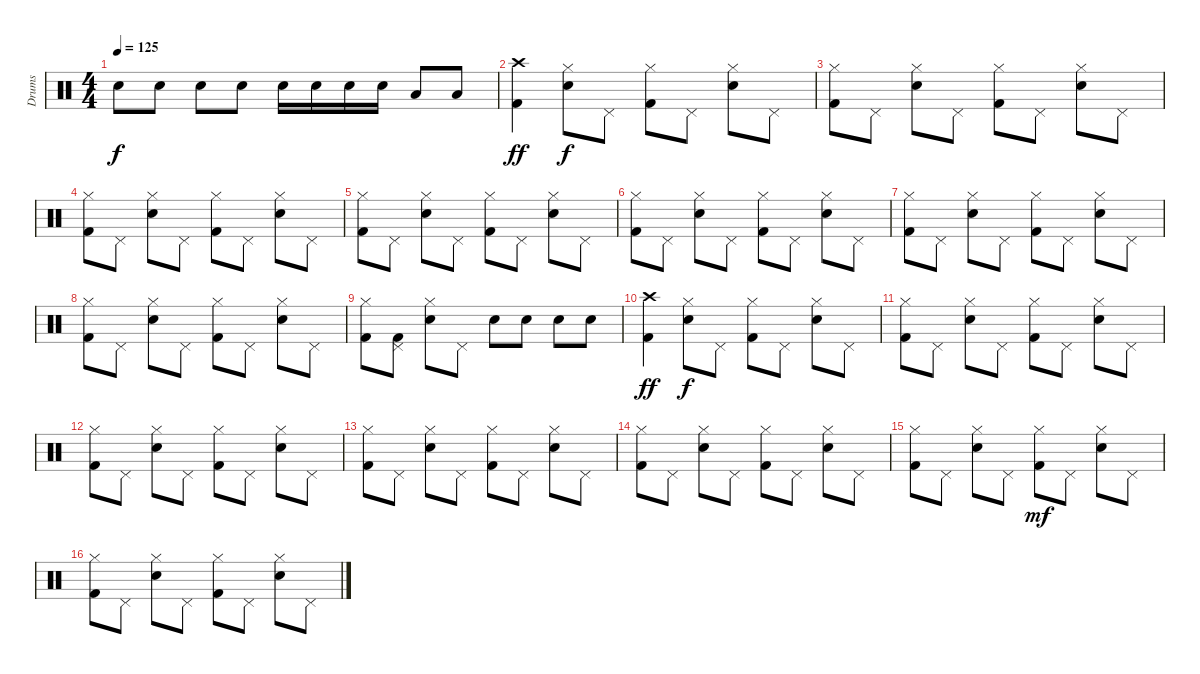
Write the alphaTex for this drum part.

\track ("Drums" "Drums") {instrument percussion}
\staff {score}
\articulation defaults
\ts (4 4)
\tempo 125
\clef neutral
\ks c "Snare (hit) 2".8{dy f} "Snare (hit) 2".8 "Snare (hit) 2".8 "Snare (hit) 2".8 "Snare (hit) 2".16 "Snare (hit) 2".16 "Snare (hit) 2".16 "Snare (hit) 2".16 "Low Tom (hit)".8 "Low Tom (hit)".8
|
("Crash high (hit)" "Kick (hit) 2").4{dy ff} ("Hi-Hat (closed)" "Electric Snare (hit)").8{dy f} "Pedal Hi-Hat (hit)".8 ("Hi-Hat (closed)" "Kick (hit) 2").8 "Pedal Hi-Hat (hit)".8 ("Hi-Hat (closed)" "Electric Snare (hit)").8 "Pedal Hi-Hat (hit)".8 |
("Hi-Hat (closed)" "Kick (hit) 2").8 "Pedal Hi-Hat (hit)".8 ("Hi-Hat (closed)" "Electric Snare (hit)").8 "Pedal Hi-Hat (hit)".8 ("Hi-Hat (closed)" "Kick (hit) 2").8 "Pedal Hi-Hat (hit)".8 ("Hi-Hat (closed)" "Electric Snare (hit)").8 "Pedal Hi-Hat (hit)".8 |
("Hi-Hat (closed)" "Kick (hit) 2").8 "Pedal Hi-Hat (hit)".8 ("Hi-Hat (closed)" "Electric Snare (hit)").8 "Pedal Hi-Hat (hit)".8 ("Hi-Hat (closed)" "Kick (hit) 2").8 "Pedal Hi-Hat (hit)".8 ("Hi-Hat (closed)" "Electric Snare (hit)").8 "Pedal Hi-Hat (hit)".8 |
("Hi-Hat (closed)" "Kick (hit) 2").8 "Pedal Hi-Hat (hit)".8 ("Hi-Hat (closed)" "Electric Snare (hit)").8 "Pedal Hi-Hat (hit)".8 ("Hi-Hat (closed)" "Kick (hit) 2").8 "Pedal Hi-Hat (hit)".8 ("Hi-Hat (closed)" "Electric Snare (hit)").8 "Pedal Hi-Hat (hit)".8 |
("Hi-Hat (closed)" "Kick (hit) 2").8 "Pedal Hi-Hat (hit)".8 ("Hi-Hat (closed)" "Electric Snare (hit)").8 "Pedal Hi-Hat (hit)".8 ("Hi-Hat (closed)" "Kick (hit) 2").8 "Pedal Hi-Hat (hit)".8 ("Hi-Hat (closed)" "Electric Snare (hit)").8 "Pedal Hi-Hat (hit)".8 |
("Hi-Hat (closed)" "Kick (hit) 2").8 "Pedal Hi-Hat (hit)".8 ("Hi-Hat (closed)" "Electric Snare (hit)").8 "Pedal Hi-Hat (hit)".8 ("Hi-Hat (closed)" "Kick (hit) 2").8 "Pedal Hi-Hat (hit)".8 ("Hi-Hat (closed)" "Electric Snare (hit)").8 "Pedal Hi-Hat (hit)".8 |
("Hi-Hat (closed)" "Kick (hit) 2").8 "Pedal Hi-Hat (hit)".8 ("Hi-Hat (closed)" "Electric Snare (hit)").8 "Pedal Hi-Hat (hit)".8 ("Hi-Hat (closed)" "Kick (hit) 2").8 "Pedal Hi-Hat (hit)".8 ("Hi-Hat (closed)" "Electric Snare (hit)").8 "Pedal Hi-Hat (hit)".8 |
("Hi-Hat (closed)" "Kick (hit) 2").8 ("Pedal Hi-Hat (hit)" "Kick (hit) 2").8 ("Hi-Hat (closed)" "Electric Snare (hit)").8 "Pedal Hi-Hat (hit)".8 "Electric Snare (hit)".8 "Electric Snare (hit)".8 "Electric Snare (hit)".8 "Electric Snare (hit)".8 |
("Crash high (hit)" "Kick (hit) 2").4{dy ff} ("Hi-Hat (closed)" "Electric Snare (hit)").8{dy f} "Pedal Hi-Hat (hit)".8 ("Hi-Hat (closed)" "Kick (hit) 2").8 "Pedal Hi-Hat (hit)".8 ("Hi-Hat (closed)" "Electric Snare (hit)").8 "Pedal Hi-Hat (hit)".8 |
("Hi-Hat (closed)" "Kick (hit) 2").8 "Pedal Hi-Hat (hit)".8 ("Hi-Hat (closed)" "Electric Snare (hit)").8 "Pedal Hi-Hat (hit)".8 ("Hi-Hat (closed)" "Kick (hit) 2").8 "Pedal Hi-Hat (hit)".8 ("Hi-Hat (closed)" "Electric Snare (hit)").8 "Pedal Hi-Hat (hit)".8 |
("Hi-Hat (closed)" "Kick (hit) 2").8 "Pedal Hi-Hat (hit)".8 ("Hi-Hat (closed)" "Electric Snare (hit)").8 "Pedal Hi-Hat (hit)".8 ("Hi-Hat (closed)" "Kick (hit) 2").8 "Pedal Hi-Hat (hit)".8 ("Hi-Hat (closed)" "Electric Snare (hit)").8 "Pedal Hi-Hat (hit)".8 |
("Hi-Hat (closed)" "Kick (hit) 2").8 "Pedal Hi-Hat (hit)".8 ("Hi-Hat (closed)" "Electric Snare (hit)").8 "Pedal Hi-Hat (hit)".8 ("Hi-Hat (closed)" "Kick (hit) 2").8 "Pedal Hi-Hat (hit)".8 ("Hi-Hat (closed)" "Electric Snare (hit)").8 "Pedal Hi-Hat (hit)".8 |
("Hi-Hat (closed)" "Kick (hit) 2").8 "Pedal Hi-Hat (hit)".8 ("Hi-Hat (closed)" "Electric Snare (hit)").8 "Pedal Hi-Hat (hit)".8 ("Hi-Hat (closed)" "Kick (hit) 2").8 "Pedal Hi-Hat (hit)".8 ("Hi-Hat (closed)" "Electric Snare (hit)").8 "Pedal Hi-Hat (hit)".8 |
("Hi-Hat (closed)" "Kick (hit) 2").8 "Pedal Hi-Hat (hit)".8 ("Hi-Hat (closed)" "Electric Snare (hit)").8 "Pedal Hi-Hat (hit)".8 ("Hi-Hat (closed)" "Kick (hit) 2").8{dy mf} "Pedal Hi-Hat (hit)".8 ("Hi-Hat (closed)" "Electric Snare (hit)").8 "Pedal Hi-Hat (hit)".8 |
("Hi-Hat (closed)" "Kick (hit) 2").8 "Pedal Hi-Hat (hit)".8 ("Hi-Hat (closed)" "Electric Snare (hit)").8 "Pedal Hi-Hat (hit)".8 ("Hi-Hat (closed)" "Kick (hit) 2").8 "Pedal Hi-Hat (hit)".8 ("Hi-Hat (closed)" "Electric Snare (hit)").8 "Pedal Hi-Hat (hit)".8
